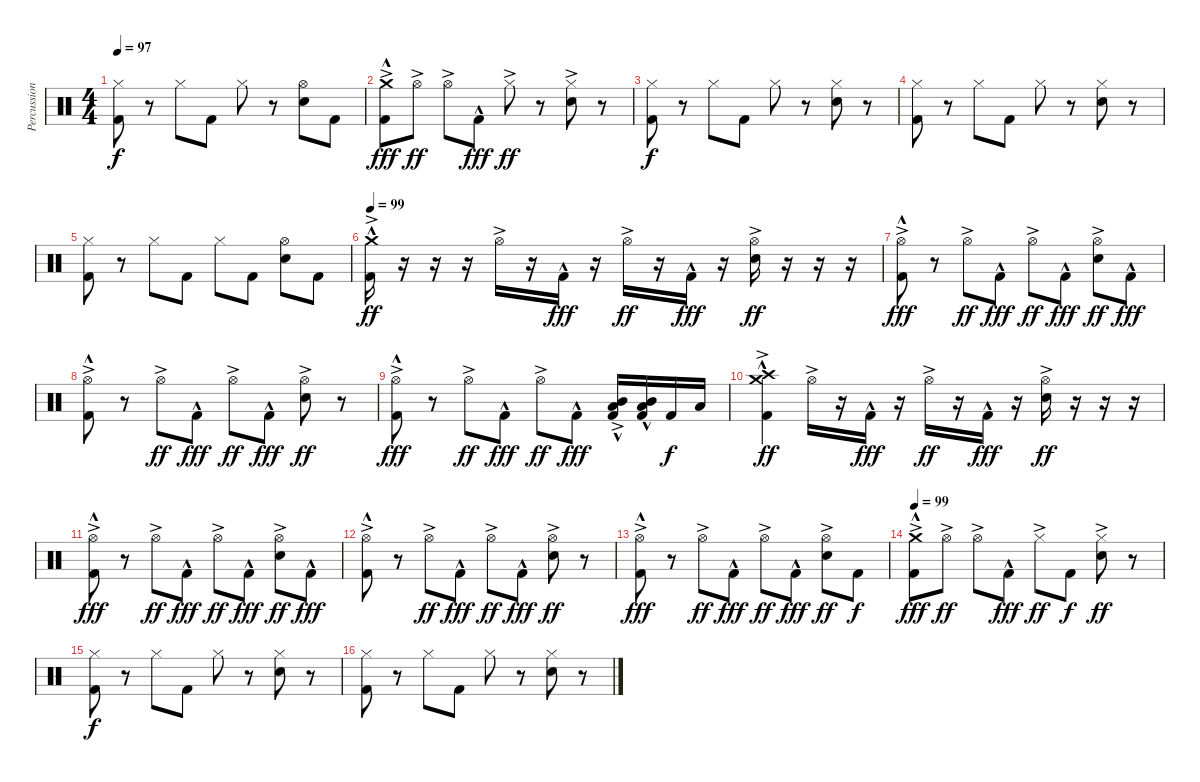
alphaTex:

\track ("Percussion" "Percussion") {instrument percussion}
\staff {score}
\articulation defaults
\ts (4 4)
\tempo 97
\clef neutral
\ks c
("Hi-Hat (closed)" "Kick (hit) 2").8{dy f} r.8 "Hi-Hat (closed)".8 "Kick (hit) 2".8 "Hi-Hat (closed)".8 r.8 ("Hi-Hat (open)" "Snare (hit) 2").8 "Kick (hit) 2".8 |
("Crash medium (hit)"{ac} "Kick (hit) 2"{hac}).8{dy fff} "Hi-Hat (open)"{ac}.8{dy ff} "Hi-Hat (open)"{ac}.8 "Kick (hit) 2"{hac}.8{dy fff} "Hi-Hat (closed)"{ac}.8{dy ff} r.8 ("Hi-Hat (closed)"{ac} "Snare (hit) 2"{ac}).8 r.8 |
("Hi-Hat (closed)" "Kick (hit) 2").8{dy f} r.8 "Hi-Hat (closed)".8 "Kick (hit) 2".8 "Hi-Hat (closed)".8 r.8 ("Hi-Hat (closed)" "Snare (hit) 2").8 r.8 |
("Hi-Hat (closed)" "Kick (hit) 2").8 r.8 "Hi-Hat (closed)".8 "Kick (hit) 2".8 "Hi-Hat (closed)".8 r.8 ("Hi-Hat (closed)" "Snare (hit) 2").8 r.8 |
("Hi-Hat (closed)" "Kick (hit) 2").8 r.8 "Hi-Hat (closed)".8 "Kick (hit) 2".8 "Hi-Hat (closed)".8 "Kick (hit) 2".8 ("Hi-Hat (open)" "Snare (hit) 2").8 "Kick (hit) 2".8 |
\tempo 99
("Crash medium (hit)"{hac} "Kick (hit) 2"{ac}).16{dy ff} r.16 r.16 r.16 "Hi-Hat (open)"{ac}.16 r.16 "Kick (hit) 2"{hac}.16{dy fff} r.16 "Hi-Hat (open)"{ac}.16{dy ff} r.16 "Kick (hit) 2"{hac}.16{dy fff} r.16 ("Hi-Hat (open)"{ac} "Snare (hit) 2"{ac}).16{dy ff} r.16 r.16 r.16 |
("Hi-Hat (open)"{ac} "Kick (hit) 2"{hac}).8{dy fff} r.8 "Hi-Hat (open)"{ac}.8{dy ff} "Kick (hit) 2"{hac}.8{dy fff} "Hi-Hat (open)"{ac}.8{dy ff} "Kick (hit) 2"{hac}.8{dy fff} ("Hi-Hat (open)"{ac} "Snare (hit) 2"{ac}).8{dy ff} "Kick (hit) 2"{hac}.8{dy fff} |
("Hi-Hat (open)"{ac} "Kick (hit) 2"{hac}).8 r.8 "Hi-Hat (open)"{ac}.8{dy ff} "Kick (hit) 2"{hac}.8{dy fff} "Hi-Hat (open)"{ac}.8{dy ff} "Kick (hit) 2"{hac}.8{dy fff} ("Hi-Hat (open)"{ac} "Snare (hit) 2"{ac}).8{dy ff} r.8 |
("Hi-Hat (open)"{ac} "Kick (hit) 2"{hac}).8{dy fff} r.8 "Hi-Hat (open)"{ac}.8{dy ff} "Kick (hit) 2"{hac}.8{dy fff} "Hi-Hat (open)"{ac}.8{dy ff} "Kick (hit) 2"{hac}.8{dy fff} ("Low Tom (hit)"{ac} "Mid Tom (hit)"{hac} "Kick (hit) 2").16 ("Low Tom (hit)"{hac} "Mid Tom (hit)"{hac} "Kick (hit) 2").16 "Kick (hit) 2".16{dy f} "Low Tom (hit)".16 |
("Crash medium (hit)"{hac} "Crash high (hit)"{hac} "Kick (hit) 2"{ac}).4{dy ff} "Hi-Hat (open)"{ac}.16 r.16 "Kick (hit) 2"{hac}.16{dy fff} r.16 "Hi-Hat (open)"{ac}.16{dy ff} r.16 "Kick (hit) 2"{hac}.16{dy fff} r.16 ("Hi-Hat (open)"{ac} "Snare (hit) 2"{ac}).16{dy ff} r.16 r.16 r.16 |
("Hi-Hat (open)"{ac} "Kick (hit) 2"{hac}).8{dy fff} r.8 "Hi-Hat (open)"{ac}.8{dy ff} "Kick (hit) 2"{hac}.8{dy fff} "Hi-Hat (open)"{ac}.8{dy ff} "Kick (hit) 2"{hac}.8{dy fff} ("Hi-Hat (open)"{ac} "Snare (hit) 2"{ac}).8{dy ff} "Kick (hit) 2"{hac}.8{dy fff} |
("Hi-Hat (open)"{ac} "Kick (hit) 2"{hac}).8 r.8 "Hi-Hat (open)"{ac}.8{dy ff} "Kick (hit) 2"{hac}.8{dy fff} "Hi-Hat (open)"{ac}.8{dy ff} "Kick (hit) 2"{hac}.8{dy fff} ("Hi-Hat (open)"{ac} "Snare (hit) 2"{ac}).8{dy ff} r.8 |
("Hi-Hat (open)"{ac} "Kick (hit) 2"{hac}).8{dy fff} r.8 "Hi-Hat (open)"{ac}.8{dy ff} "Kick (hit) 2"{hac}.8{dy fff} "Hi-Hat (open)"{ac}.8{dy ff} "Kick (hit) 2"{hac}.8{dy fff} ("Hi-Hat (open)"{ac} "Snare (hit) 2"{ac}).8{dy ff} "Kick (hit) 2".8{dy f} |
\tempo 99
("Crash medium (hit)"{ac} "Kick (hit) 2"{hac}).8{dy fff} "Hi-Hat (open)"{ac}.8{dy ff} "Hi-Hat (open)"{ac}.8 "Kick (hit) 2"{hac}.8{dy fff} "Hi-Hat (closed)"{ac}.8{dy ff} "Kick (hit) 2".8{dy f} ("Hi-Hat (closed)"{ac} "Snare (hit) 2"{ac}).8{dy ff} r.8 |
("Hi-Hat (closed)" "Kick (hit) 2").8{dy f} r.8 "Hi-Hat (closed)".8 "Kick (hit) 2".8 "Hi-Hat (closed)".8 r.8 ("Hi-Hat (closed)" "Snare (hit) 2").8 r.8 |
("Hi-Hat (closed)" "Kick (hit) 2").8 r.8 "Hi-Hat (closed)".8 "Kick (hit) 2".8 "Hi-Hat (closed)".8 r.8 ("Hi-Hat (closed)" "Snare (hit) 2").8 r.8
